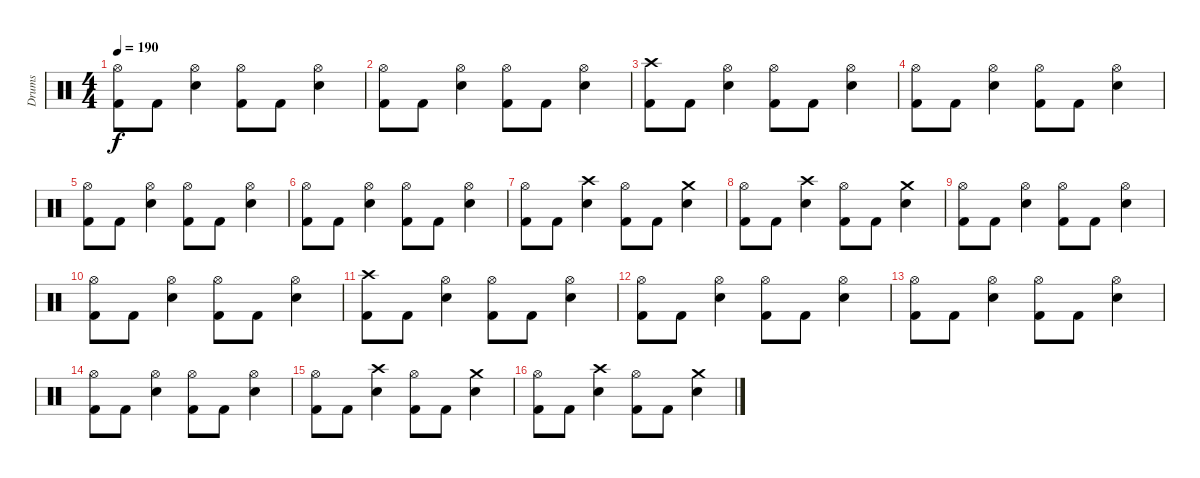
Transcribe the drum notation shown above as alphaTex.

\track ("Drums" "Drums") {instrument percussion}
\staff {score}
\articulation defaults
\ts (4 4)
\tempo 190
\clef neutral
\ks c
("Hi-Hat (open)" "Kick (hit) 2").8{dy f} "Kick (hit) 2".8 ("Hi-Hat (open)" "Snare (hit) 2").4 ("Hi-Hat (open)" "Kick (hit) 2").8 "Kick (hit) 2".8 ("Hi-Hat (open)" "Snare (hit) 2").4 |
("Hi-Hat (open)" "Kick (hit) 2").8 "Kick (hit) 2".8 ("Hi-Hat (open)" "Snare (hit) 2").4 ("Hi-Hat (open)" "Kick (hit) 2").8 "Kick (hit) 2".8 ("Hi-Hat (open)" "Snare (hit) 2").4 |
("Crash high (hit)" "Kick (hit) 2").8 "Kick (hit) 2".8 ("Hi-Hat (open)" "Snare (hit) 2").4 ("Hi-Hat (open)" "Kick (hit) 2").8 "Kick (hit) 2".8 ("Hi-Hat (open)" "Snare (hit) 2").4 |
("Hi-Hat (open)" "Kick (hit) 2").8 "Kick (hit) 2".8 ("Hi-Hat (open)" "Snare (hit) 2").4 ("Hi-Hat (open)" "Kick (hit) 2").8 "Kick (hit) 2".8 ("Hi-Hat (open)" "Snare (hit) 2").4 |
("Hi-Hat (open)" "Kick (hit) 2").8 "Kick (hit) 2".8 ("Hi-Hat (open)" "Snare (hit) 2").4 ("Hi-Hat (open)" "Kick (hit) 2").8 "Kick (hit) 2".8 ("Hi-Hat (open)" "Snare (hit) 2").4 |
("Hi-Hat (open)" "Kick (hit) 2").8 "Kick (hit) 2".8 ("Hi-Hat (open)" "Snare (hit) 2").4 ("Hi-Hat (open)" "Kick (hit) 2").8 "Kick (hit) 2".8 ("Hi-Hat (open)" "Snare (hit) 2").4 |
("Hi-Hat (open)" "Kick (hit) 2").8 "Kick (hit) 2".8 ("Crash high (hit)" "Snare (hit) 2").4 ("Hi-Hat (open)" "Kick (hit) 2").8 "Kick (hit) 2".8 ("Crash medium (hit)" "Snare (hit) 2").4 |
("Hi-Hat (open)" "Kick (hit) 2").8 "Kick (hit) 2".8 ("Crash high (hit)" "Snare (hit) 2").4 ("Hi-Hat (open)" "Kick (hit) 2").8 "Kick (hit) 2".8 ("Crash medium (hit)" "Snare (hit) 2").4 |
("Hi-Hat (open)" "Kick (hit) 2").8 "Kick (hit) 2".8 ("Hi-Hat (open)" "Snare (hit) 2").4 ("Hi-Hat (open)" "Kick (hit) 2").8 "Kick (hit) 2".8 ("Hi-Hat (open)" "Snare (hit) 2").4 |
("Hi-Hat (open)" "Kick (hit) 2").8 "Kick (hit) 2".8 ("Hi-Hat (open)" "Snare (hit) 2").4 ("Hi-Hat (open)" "Kick (hit) 2").8 "Kick (hit) 2".8 ("Hi-Hat (open)" "Snare (hit) 2").4 |
("Crash high (hit)" "Kick (hit) 2").8 "Kick (hit) 2".8 ("Hi-Hat (open)" "Snare (hit) 2").4 ("Hi-Hat (open)" "Kick (hit) 2").8 "Kick (hit) 2".8 ("Hi-Hat (open)" "Snare (hit) 2").4 |
("Hi-Hat (open)" "Kick (hit) 2").8 "Kick (hit) 2".8 ("Hi-Hat (open)" "Snare (hit) 2").4 ("Hi-Hat (open)" "Kick (hit) 2").8 "Kick (hit) 2".8 ("Hi-Hat (open)" "Snare (hit) 2").4 |
("Hi-Hat (open)" "Kick (hit) 2").8 "Kick (hit) 2".8 ("Hi-Hat (open)" "Snare (hit) 2").4 ("Hi-Hat (open)" "Kick (hit) 2").8 "Kick (hit) 2".8 ("Hi-Hat (open)" "Snare (hit) 2").4 |
("Hi-Hat (open)" "Kick (hit) 2").8 "Kick (hit) 2".8 ("Hi-Hat (open)" "Snare (hit) 2").4 ("Hi-Hat (open)" "Kick (hit) 2").8 "Kick (hit) 2".8 ("Hi-Hat (open)" "Snare (hit) 2").4 |
("Hi-Hat (open)" "Kick (hit) 2").8 "Kick (hit) 2".8 ("Crash high (hit)" "Snare (hit) 2").4 ("Hi-Hat (open)" "Kick (hit) 2").8 "Kick (hit) 2".8 ("Crash medium (hit)" "Snare (hit) 2").4 |
("Hi-Hat (open)" "Kick (hit) 2").8 "Kick (hit) 2".8 ("Crash high (hit)" "Snare (hit) 2").4 ("Hi-Hat (open)" "Kick (hit) 2").8 "Kick (hit) 2".8 ("Crash medium (hit)" "Snare (hit) 2").4
